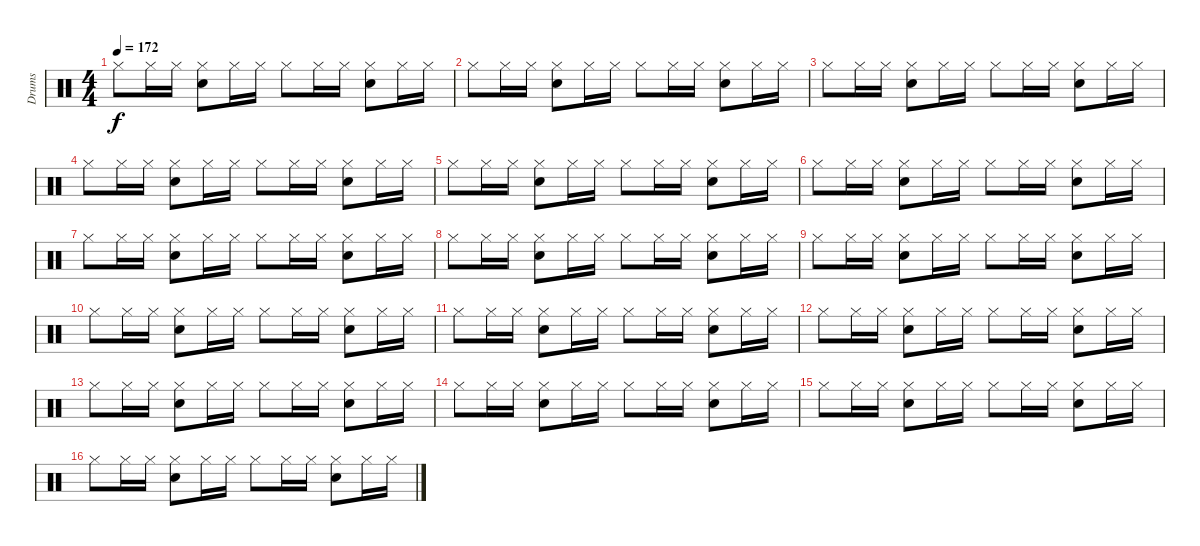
\track ("Drums" "Drums") {instrument percussion}
\staff {score}
\articulation defaults
\ts (4 4)
\tempo 172
\clef neutral
\ks c "Hi-Hat (closed)".8{dy f} "Hi-Hat (closed)".16 "Hi-Hat (closed)".16
("Hi-Hat (closed)" "Snare (hit) 2").8 "Hi-Hat (closed)".16 "Hi-Hat (closed)".16 "Hi-Hat (closed)".8 "Hi-Hat (closed)".16 "Hi-Hat (closed)".16 ("Hi-Hat (closed)" "Snare (hit) 2").8 "Hi-Hat (closed)".16 "Hi-Hat (closed)".16 |
"Hi-Hat (closed)".8 "Hi-Hat (closed)".16 "Hi-Hat (closed)".16 ("Hi-Hat (closed)" "Snare (hit) 2").8 "Hi-Hat (closed)".16 "Hi-Hat (closed)".16 "Hi-Hat (closed)".8 "Hi-Hat (closed)".16 "Hi-Hat (closed)".16 ("Hi-Hat (closed)" "Snare (hit) 2").8 "Hi-Hat (closed)".16 "Hi-Hat (closed)".16 |
"Hi-Hat (closed)".8 "Hi-Hat (closed)".16 "Hi-Hat (closed)".16 ("Hi-Hat (closed)" "Snare (hit) 2").8 "Hi-Hat (closed)".16 "Hi-Hat (closed)".16 "Hi-Hat (closed)".8 "Hi-Hat (closed)".16 "Hi-Hat (closed)".16 ("Hi-Hat (closed)" "Snare (hit) 2").8 "Hi-Hat (closed)".16 "Hi-Hat (closed)".16 |
"Hi-Hat (closed)".8 "Hi-Hat (closed)".16 "Hi-Hat (closed)".16 ("Hi-Hat (closed)" "Snare (hit) 2").8 "Hi-Hat (closed)".16 "Hi-Hat (closed)".16 "Hi-Hat (closed)".8 "Hi-Hat (closed)".16 "Hi-Hat (closed)".16 ("Hi-Hat (closed)" "Snare (hit) 2").8 "Hi-Hat (closed)".16 "Hi-Hat (closed)".16 |
"Hi-Hat (closed)".8 "Hi-Hat (closed)".16 "Hi-Hat (closed)".16 ("Hi-Hat (closed)" "Snare (hit) 2").8 "Hi-Hat (closed)".16 "Hi-Hat (closed)".16 "Hi-Hat (closed)".8 "Hi-Hat (closed)".16 "Hi-Hat (closed)".16 ("Hi-Hat (closed)" "Snare (hit) 2").8 "Hi-Hat (closed)".16 "Hi-Hat (closed)".16 |
"Hi-Hat (closed)".8 "Hi-Hat (closed)".16 "Hi-Hat (closed)".16 ("Hi-Hat (closed)" "Snare (hit) 2").8 "Hi-Hat (closed)".16 "Hi-Hat (closed)".16 "Hi-Hat (closed)".8 "Hi-Hat (closed)".16 "Hi-Hat (closed)".16 ("Hi-Hat (closed)" "Snare (hit) 2").8 "Hi-Hat (closed)".16 "Hi-Hat (closed)".16 |
"Hi-Hat (closed)".8 "Hi-Hat (closed)".16 "Hi-Hat (closed)".16 ("Hi-Hat (closed)" "Snare (hit) 2").8 "Hi-Hat (closed)".16 "Hi-Hat (closed)".16 "Hi-Hat (closed)".8 "Hi-Hat (closed)".16 "Hi-Hat (closed)".16 ("Hi-Hat (closed)" "Snare (hit) 2").8 "Hi-Hat (closed)".16 "Hi-Hat (closed)".16 |
"Hi-Hat (closed)".8 "Hi-Hat (closed)".16 "Hi-Hat (closed)".16 ("Hi-Hat (closed)" "Snare (hit) 2").8 "Hi-Hat (closed)".16 "Hi-Hat (closed)".16 "Hi-Hat (closed)".8 "Hi-Hat (closed)".16 "Hi-Hat (closed)".16 ("Hi-Hat (closed)" "Snare (hit) 2").8 "Hi-Hat (closed)".16 "Hi-Hat (closed)".16 |
"Hi-Hat (closed)".8 "Hi-Hat (closed)".16 "Hi-Hat (closed)".16 ("Hi-Hat (closed)" "Snare (hit) 2").8 "Hi-Hat (closed)".16 "Hi-Hat (closed)".16 "Hi-Hat (closed)".8 "Hi-Hat (closed)".16 "Hi-Hat (closed)".16 ("Hi-Hat (closed)" "Snare (hit) 2").8 "Hi-Hat (closed)".16 "Hi-Hat (closed)".16 |
"Hi-Hat (closed)".8 "Hi-Hat (closed)".16 "Hi-Hat (closed)".16 ("Hi-Hat (closed)" "Snare (hit) 2").8 "Hi-Hat (closed)".16 "Hi-Hat (closed)".16 "Hi-Hat (closed)".8 "Hi-Hat (closed)".16 "Hi-Hat (closed)".16 ("Hi-Hat (closed)" "Snare (hit) 2").8 "Hi-Hat (closed)".16 "Hi-Hat (closed)".16 |
"Hi-Hat (closed)".8 "Hi-Hat (closed)".16 "Hi-Hat (closed)".16 ("Hi-Hat (closed)" "Snare (hit) 2").8 "Hi-Hat (closed)".16 "Hi-Hat (closed)".16 "Hi-Hat (closed)".8 "Hi-Hat (closed)".16 "Hi-Hat (closed)".16 ("Hi-Hat (closed)" "Snare (hit) 2").8 "Hi-Hat (closed)".16 "Hi-Hat (closed)".16 |
"Hi-Hat (closed)".8 "Hi-Hat (closed)".16 "Hi-Hat (closed)".16 ("Hi-Hat (closed)" "Snare (hit) 2").8 "Hi-Hat (closed)".16 "Hi-Hat (closed)".16 "Hi-Hat (closed)".8 "Hi-Hat (closed)".16 "Hi-Hat (closed)".16 ("Hi-Hat (closed)" "Snare (hit) 2").8 "Hi-Hat (closed)".16 "Hi-Hat (closed)".16 |
"Hi-Hat (closed)".8 "Hi-Hat (closed)".16 "Hi-Hat (closed)".16 ("Hi-Hat (closed)" "Snare (hit) 2").8 "Hi-Hat (closed)".16 "Hi-Hat (closed)".16 "Hi-Hat (closed)".8 "Hi-Hat (closed)".16 "Hi-Hat (closed)".16 ("Hi-Hat (closed)" "Snare (hit) 2").8 "Hi-Hat (closed)".16 "Hi-Hat (closed)".16 |
"Hi-Hat (closed)".8 "Hi-Hat (closed)".16 "Hi-Hat (closed)".16 ("Hi-Hat (closed)" "Snare (hit) 2").8 "Hi-Hat (closed)".16 "Hi-Hat (closed)".16 "Hi-Hat (closed)".8 "Hi-Hat (closed)".16 "Hi-Hat (closed)".16 ("Hi-Hat (closed)" "Snare (hit) 2").8 "Hi-Hat (closed)".16 "Hi-Hat (closed)".16 |
"Hi-Hat (closed)".8 "Hi-Hat (closed)".16 "Hi-Hat (closed)".16 ("Hi-Hat (closed)" "Snare (hit) 2").8 "Hi-Hat (closed)".16 "Hi-Hat (closed)".16 "Hi-Hat (closed)".8 "Hi-Hat (closed)".16 "Hi-Hat (closed)".16 ("Hi-Hat (closed)" "Snare (hit) 2").8 "Hi-Hat (closed)".16 "Hi-Hat (closed)".16 |
"Hi-Hat (closed)".8 "Hi-Hat (closed)".16 "Hi-Hat (closed)".16 ("Hi-Hat (closed)" "Snare (hit) 2").8 "Hi-Hat (closed)".16 "Hi-Hat (closed)".16 "Hi-Hat (closed)".8 "Hi-Hat (closed)".16 "Hi-Hat (closed)".16 ("Hi-Hat (closed)" "Snare (hit) 2").8 "Hi-Hat (closed)".16 "Hi-Hat (closed)".16
